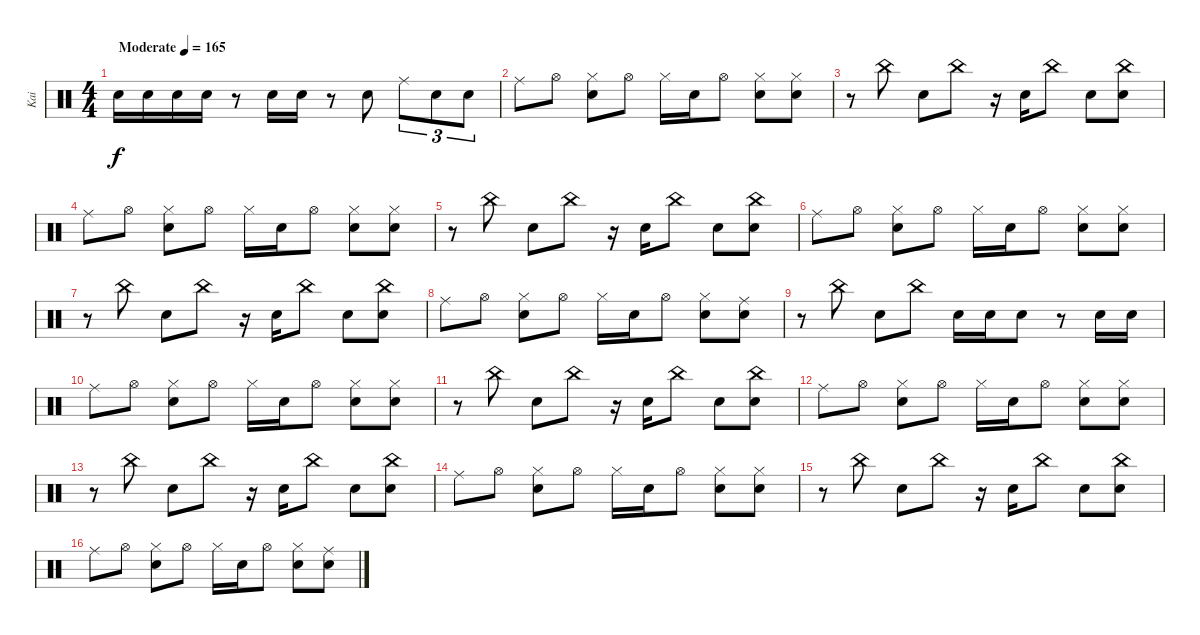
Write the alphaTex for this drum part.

\track ("Kai" "Kai") {instrument percussion}
\staff {score}
\articulation defaults
\ts (4 4)
\tempo (165 "Moderate")
\clef neutral
\ks c "Snare (hit) 2".16{dy f} "Snare (hit) 2".16 "Snare (hit) 2".16 "Snare (hit) 2".16
r.8 "Snare (hit) 2".16 "Snare (hit) 2".16 r.8 "Snare (hit) 2".8 "Ride (middle)".8{tu (3 2)} "Snare (hit) 2".8{tu (3 2)} "Snare (hit) 2".8{tu (3 2)} |
"Ride (middle)".8 "Hi-Hat (open)".8 ("Hi-Hat (closed)" "Snare (hit) 2").8 "Hi-Hat (open)".8 "Hi-Hat (closed)".16 "Snare (hit) 2".16 "Hi-Hat (open)".8 ("Hi-Hat (closed)" "Snare (hit) 2").8 ("Hi-Hat (closed)" "Snare (hit) 2").8 |
r.8 "China (hit)".8 "Snare (hit) 2".8 "China (hit)".8 r.16 "Snare (hit) 2".16 "China (hit)".8 "Snare (hit) 2".8 ("China (hit)" "Snare (hit) 2").8 |
"Ride (middle)".8 "Hi-Hat (open)".8 ("Hi-Hat (closed)" "Snare (hit) 2").8 "Hi-Hat (open)".8 "Hi-Hat (closed)".16 "Snare (hit) 2".16 "Hi-Hat (open)".8 ("Hi-Hat (closed)" "Snare (hit) 2").8 ("Hi-Hat (closed)" "Snare (hit) 2").8 |
r.8 "China (hit)".8 "Snare (hit) 2".8 "China (hit)".8 r.16 "Snare (hit) 2".16 "China (hit)".8 "Snare (hit) 2".8 ("China (hit)" "Snare (hit) 2").8 |
"Ride (middle)".8 "Hi-Hat (open)".8 ("Hi-Hat (closed)" "Snare (hit) 2").8 "Hi-Hat (open)".8 "Hi-Hat (closed)".16 "Snare (hit) 2".16 "Hi-Hat (open)".8 ("Hi-Hat (closed)" "Snare (hit) 2").8 ("Hi-Hat (closed)" "Snare (hit) 2").8 |
r.8 "China (hit)".8 "Snare (hit) 2".8 "China (hit)".8 r.16 "Snare (hit) 2".16 "China (hit)".8 "Snare (hit) 2".8 ("China (hit)" "Snare (hit) 2").8 |
"Ride (middle)".8 "Hi-Hat (open)".8 ("Hi-Hat (closed)" "Snare (hit) 2").8 "Hi-Hat (open)".8 "Hi-Hat (closed)".16 "Snare (hit) 2".16 "Hi-Hat (open)".8 ("Hi-Hat (closed)" "Snare (hit) 2").8 ("Ride (middle)" "Snare (hit) 2").8 |
r.8 "China (hit)".8 "Snare (hit) 2".8 "China (hit)".8 "Snare (hit) 2".16 "Snare (hit) 2".16 "Snare (hit) 2".8 r.8 "Snare (hit) 2".16 "Snare (hit) 2".16 |
"Ride (middle)".8 "Hi-Hat (open)".8 ("Hi-Hat (closed)" "Snare (hit) 2").8 "Hi-Hat (open)".8 "Hi-Hat (closed)".16 "Snare (hit) 2".16 "Hi-Hat (open)".8 ("Hi-Hat (closed)" "Snare (hit) 2").8 ("Hi-Hat (closed)" "Snare (hit) 2").8 |
r.8 "China (hit)".8 "Snare (hit) 2".8 "China (hit)".8 r.16 "Snare (hit) 2".16 "China (hit)".8 "Snare (hit) 2".8 ("China (hit)" "Snare (hit) 2").8 |
"Ride (middle)".8 "Hi-Hat (open)".8 ("Hi-Hat (closed)" "Snare (hit) 2").8 "Hi-Hat (open)".8 "Hi-Hat (closed)".16 "Snare (hit) 2".16 "Hi-Hat (open)".8 ("Hi-Hat (closed)" "Snare (hit) 2").8 ("Hi-Hat (closed)" "Snare (hit) 2").8 |
r.8 "China (hit)".8 "Snare (hit) 2".8 "China (hit)".8 r.16 "Snare (hit) 2".16 "China (hit)".8 "Snare (hit) 2".8 ("China (hit)" "Snare (hit) 2").8 |
"Ride (middle)".8 "Hi-Hat (open)".8 ("Hi-Hat (closed)" "Snare (hit) 2").8 "Hi-Hat (open)".8 "Hi-Hat (closed)".16 "Snare (hit) 2".16 "Hi-Hat (open)".8 ("Hi-Hat (closed)" "Snare (hit) 2").8 ("Hi-Hat (closed)" "Snare (hit) 2").8 |
r.8 "China (hit)".8 "Snare (hit) 2".8 "China (hit)".8 r.16 "Snare (hit) 2".16 "China (hit)".8 "Snare (hit) 2".8 ("China (hit)" "Snare (hit) 2").8 |
"Ride (middle)".8 "Hi-Hat (open)".8 ("Hi-Hat (closed)" "Snare (hit) 2").8 "Hi-Hat (open)".8 "Hi-Hat (closed)".16 "Snare (hit) 2".16 "Hi-Hat (open)".8 ("Hi-Hat (closed)" "Snare (hit) 2").8 ("Ride (middle)" "Snare (hit) 2").8
